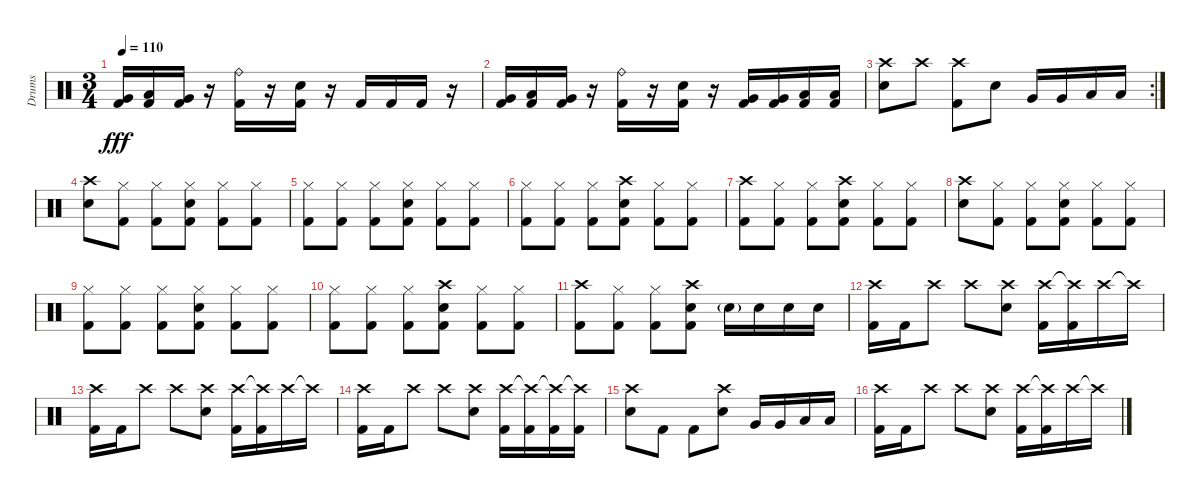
\track ("Drums" "Drums") {instrument percussion}
\staff {score}
\articulation defaults
\ts (3 4)
\tempo 110
\clef neutral
\ks c
("Very Low Tom (hit)" "Kick (hit) 2").16{dy fff} ("Low Tom (hit)" "Kick (hit) 2").16 ("Very Low Tom (hit)" "Kick (hit) 2").16 r.16 ("Ride (bell)" "Kick (hit) 2").16 r.16 ("Electric Snare (hit)" "Kick (hit) 2").16 r.16 "Kick (hit) 2".16 "Kick (hit) 2".16 "Kick (hit) 2".16 r.16 |
("Very Low Tom (hit)" "Kick (hit) 2").16 ("Low Tom (hit)" "Kick (hit) 2").16 ("Very Low Tom (hit)" "Kick (hit) 2").16 r.16 ("Ride (bell)" "Kick (hit) 2").16 r.16 ("Electric Snare (hit)" "Kick (hit) 2").16 r.16 ("Very Low Tom (hit)" "Kick (hit) 2").16 ("Very Low Tom (hit)" "Kick (hit) 2").16 ("Low Tom (hit)" "Kick (hit) 2").16 ("Low Tom (hit)" "Kick (hit) 2").16 |
\rc 2
("Crash high (hit)" "Electric Snare (hit)").8 "Crash high (hit)".8 ("Crash high (hit)" "Kick (hit) 2").8 "Electric Snare (hit)".8 "Very Low Tom (hit)".16 "Very Low Tom (hit)".16 "Low Tom (hit)".16 "Low Tom (hit)".16 |
("Crash high (hit)" "Electric Snare (hit)").8 ("Hi-Hat (closed)" "Kick (hit) 2").8 ("Hi-Hat (closed)" "Kick (hit) 2").8 ("Hi-Hat (closed)" "Electric Snare (hit)" "Kick (hit) 2").8 ("Hi-Hat (closed)" "Kick (hit) 2").8 ("Hi-Hat (closed)" "Kick (hit) 2").8 |
("Hi-Hat (closed)" "Kick (hit) 2").8 ("Hi-Hat (closed)" "Kick (hit) 2").8 ("Hi-Hat (closed)" "Kick (hit) 2").8 ("Hi-Hat (closed)" "Electric Snare (hit)" "Kick (hit) 2").8 ("Hi-Hat (closed)" "Kick (hit) 2").8 ("Hi-Hat (closed)" "Kick (hit) 2").8 |
("Hi-Hat (closed)" "Kick (hit) 2").8 ("Hi-Hat (closed)" "Kick (hit) 2").8 ("Hi-Hat (closed)" "Kick (hit) 2").8 ("Crash high (hit)" "Electric Snare (hit)" "Kick (hit) 2").8 ("Hi-Hat (closed)" "Kick (hit) 2").8 ("Hi-Hat (closed)" "Kick (hit) 2").8 |
("Crash high (hit)" "Kick (hit) 2").8 ("Hi-Hat (closed)" "Kick (hit) 2").8 ("Hi-Hat (closed)" "Kick (hit) 2").8 ("Crash high (hit)" "Electric Snare (hit)" "Kick (hit) 2").8 ("Hi-Hat (closed)" "Kick (hit) 2").8 ("Hi-Hat (closed)" "Kick (hit) 2").8 |
("Crash high (hit)" "Electric Snare (hit)").8 ("Hi-Hat (closed)" "Kick (hit) 2").8 ("Hi-Hat (closed)" "Kick (hit) 2").8 ("Hi-Hat (closed)" "Electric Snare (hit)" "Kick (hit) 2").8 ("Hi-Hat (closed)" "Kick (hit) 2").8 ("Hi-Hat (closed)" "Kick (hit) 2").8 |
("Hi-Hat (closed)" "Kick (hit) 2").8 ("Hi-Hat (closed)" "Kick (hit) 2").8 ("Hi-Hat (closed)" "Kick (hit) 2").8 ("Hi-Hat (closed)" "Electric Snare (hit)" "Kick (hit) 2").8 ("Hi-Hat (closed)" "Kick (hit) 2").8 ("Hi-Hat (closed)" "Kick (hit) 2").8 |
("Hi-Hat (closed)" "Kick (hit) 2").8 ("Hi-Hat (closed)" "Kick (hit) 2").8 ("Hi-Hat (closed)" "Kick (hit) 2").8 ("Crash high (hit)" "Electric Snare (hit)" "Kick (hit) 2").8 ("Hi-Hat (closed)" "Kick (hit) 2").8 ("Hi-Hat (closed)" "Kick (hit) 2").8 |
("Crash high (hit)" "Kick (hit) 2").8 ("Hi-Hat (closed)" "Kick (hit) 2").8 ("Hi-Hat (closed)" "Kick (hit) 2").8 ("Crash high (hit)" "Electric Snare (hit)" "Kick (hit) 2").8 "Electric Snare (hit)"{g}.16 "Electric Snare (hit)".16 "Electric Snare (hit)".16 "Electric Snare (hit)".16 |
("Crash high (hit)" "Kick (hit) 2").16 "Kick (hit) 2".16 "Crash high (hit)".8 "Crash high (hit)".8 ("Crash high (hit)" "Electric Snare (hit)").8 ("Crash high (hit)" "Kick (hit) 2").16 ("Crash high (hit)"{t} "Kick (hit) 2").16 "Crash high (hit)".16 "Crash high (hit)"{t}.16 |
("Crash high (hit)" "Kick (hit) 2").16 "Kick (hit) 2".16 "Crash high (hit)".8 "Crash high (hit)".8 ("Crash high (hit)" "Electric Snare (hit)").8 ("Crash high (hit)" "Kick (hit) 2").16 ("Crash high (hit)"{t} "Kick (hit) 2").16 "Crash high (hit)".16 "Crash high (hit)"{t}.16 |
("Crash high (hit)" "Kick (hit) 2").16 "Kick (hit) 2".16 "Crash high (hit)".8 "Crash high (hit)".8 ("Crash high (hit)" "Electric Snare (hit)").8 ("Crash high (hit)" "Kick (hit) 2").16 ("Crash high (hit)"{t} "Kick (hit) 2").16 ("Crash high (hit)"{t} "Kick (hit) 2").16 ("Crash high (hit)"{t} "Kick (hit) 2").16 |
("Crash high (hit)" "Electric Snare (hit)").8 "Kick (hit) 2".8 "Kick (hit) 2".8 ("Crash high (hit)" "Electric Snare (hit)").8 "Very Low Tom (hit)".16 "Very Low Tom (hit)".16 "Low Tom (hit)".16 "Low Tom (hit)".16 |
("Crash high (hit)" "Kick (hit) 2").16 "Kick (hit) 2".16 "Crash high (hit)".8 "Crash high (hit)".8 ("Crash high (hit)" "Electric Snare (hit)").8 ("Crash high (hit)" "Kick (hit) 2").16 ("Crash high (hit)"{t} "Kick (hit) 2").16 "Crash high (hit)".16 "Crash high (hit)"{t}.16
